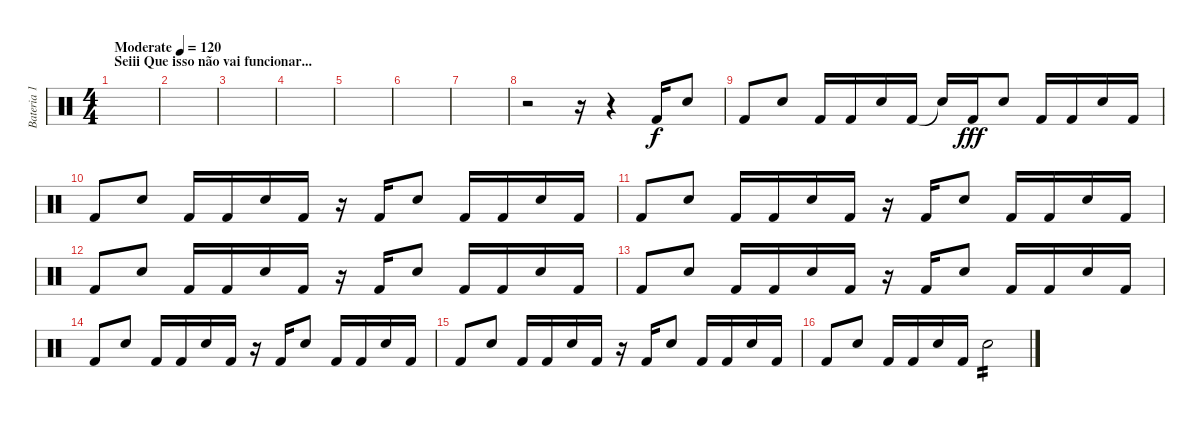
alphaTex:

\track ("Bateria 1" "Bateria 1") {instrument percussion}
\staff {score}
\articulation defaults
\ts (4 4)
\section ("" "Seiii Que isso não vai funcionar...")
\tempo (120 "Moderate")
\clef neutral
\ks c
|
|
|
|
|
|
|
r.2 r.16 r.4 "Kick (hit) 2".16 "Electric Snare (hit)".8 |
"Kick (hit) 2".8 "Electric Snare (hit)".8 "Kick (hit) 2".16 "Kick (hit) 2".16 "Electric Snare (hit)".16 "Kick (hit) 2".16 "Snare (hit)"{t}.16{dy f} "Kick (hit) 2".16{dy fff} "Electric Snare (hit)".8 "Kick (hit) 2".16 "Kick (hit) 2".16 "Electric Snare (hit)".16 "Kick (hit) 2".16 |
"Kick (hit) 2".8 "Electric Snare (hit)".8 "Kick (hit) 2".16 "Kick (hit) 2".16 "Electric Snare (hit)".16 "Kick (hit) 2".16 r.16 "Kick (hit) 2".16 "Electric Snare (hit)".8 "Kick (hit) 2".16 "Kick (hit) 2".16 "Electric Snare (hit)".16 "Kick (hit) 2".16 |
"Kick (hit) 2".8 "Electric Snare (hit)".8 "Kick (hit) 2".16 "Kick (hit) 2".16 "Electric Snare (hit)".16 "Kick (hit) 2".16 r.16 "Kick (hit) 2".16 "Electric Snare (hit)".8 "Kick (hit) 2".16 "Kick (hit) 2".16 "Electric Snare (hit)".16 "Kick (hit) 2".16 |
"Kick (hit) 2".8 "Electric Snare (hit)".8 "Kick (hit) 2".16 "Kick (hit) 2".16 "Electric Snare (hit)".16 "Kick (hit) 2".16 r.16 "Kick (hit) 2".16 "Electric Snare (hit)".8 "Kick (hit) 2".16 "Kick (hit) 2".16 "Electric Snare (hit)".16 "Kick (hit) 2".16 |
"Kick (hit) 2".8 "Electric Snare (hit)".8 "Kick (hit) 2".16 "Kick (hit) 2".16 "Electric Snare (hit)".16 "Kick (hit) 2".16 r.16 "Kick (hit) 2".16 "Electric Snare (hit)".8 "Kick (hit) 2".16 "Kick (hit) 2".16 "Electric Snare (hit)".16 "Kick (hit) 2".16 |
"Kick (hit) 2".8 "Electric Snare (hit)".8 "Kick (hit) 2".16 "Kick (hit) 2".16 "Electric Snare (hit)".16 "Kick (hit) 2".16 r.16 "Kick (hit) 2".16 "Electric Snare (hit)".8 "Kick (hit) 2".16 "Kick (hit) 2".16 "Electric Snare (hit)".16 "Kick (hit) 2".16 |
"Kick (hit) 2".8 "Electric Snare (hit)".8 "Kick (hit) 2".16 "Kick (hit) 2".16 "Electric Snare (hit)".16 "Kick (hit) 2".16 r.16 "Kick (hit) 2".16 "Electric Snare (hit)".8 "Kick (hit) 2".16 "Kick (hit) 2".16 "Electric Snare (hit)".16 "Kick (hit) 2".16 |
"Kick (hit) 2".8 "Electric Snare (hit)".8 "Kick (hit) 2".16 "Kick (hit) 2".16 "Electric Snare (hit)".16 "Kick (hit) 2".16 "Electric Snare (hit)".2{tp 2}
